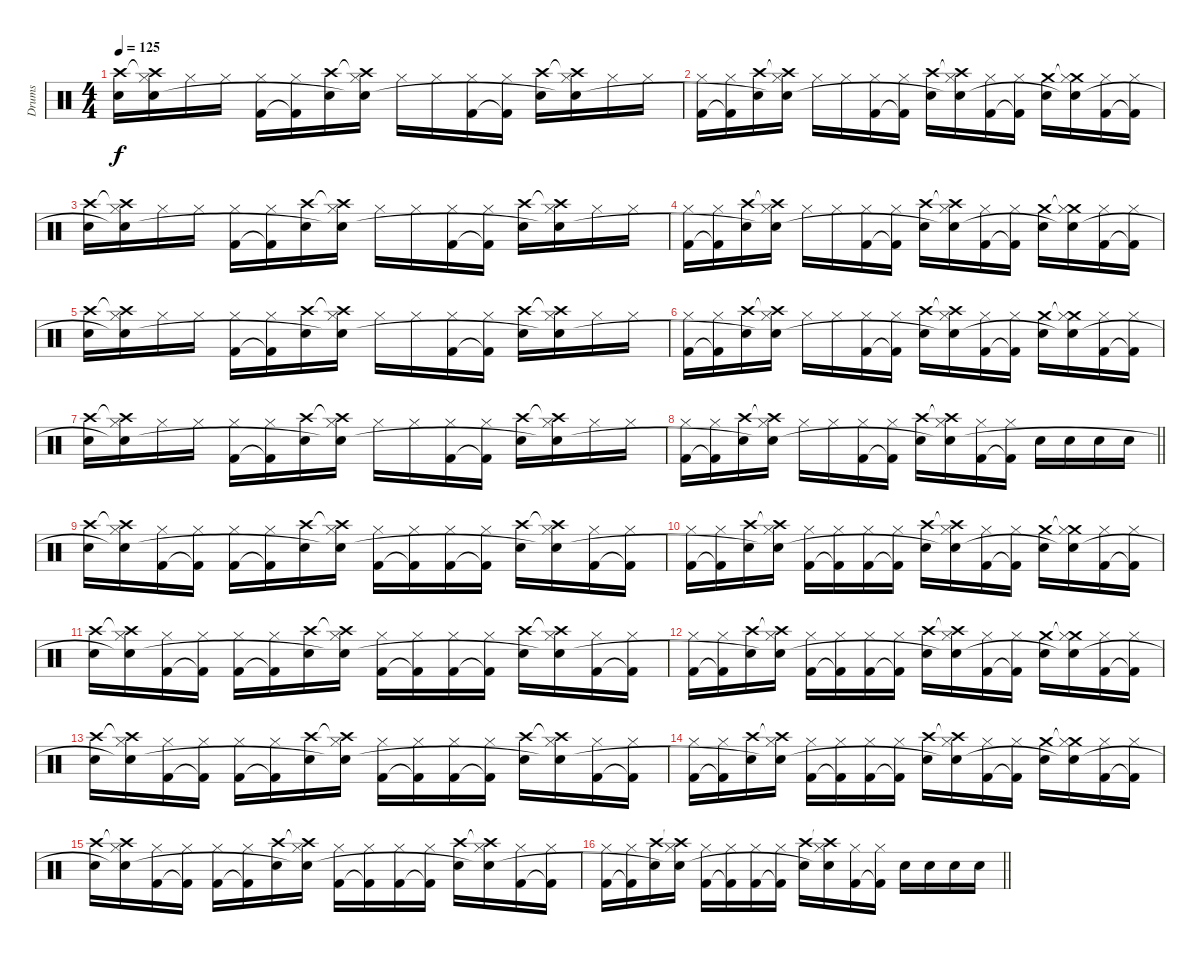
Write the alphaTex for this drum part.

\track ("Drums" "Drums") {instrument percussion}
\staff {score}
\articulation defaults
\ts (4 4)
\tempo 125
\clef neutral
\ks c
("Crash high (hit)" "Snare (hit) 2").16{dy f} ("Crash high (hit)"{t} "Hi-Hat (closed)" "Snare (hit) 2"{t}).16 "Hi-Hat (closed)".16 "Hi-Hat (closed)".16 ("Hi-Hat (closed)" "Kick (hit) 2").16 ("Hi-Hat (closed)" "Kick (hit) 2"{t}).16 ("Crash high (hit)" "Snare (hit) 2").16 ("Crash high (hit)"{t} "Hi-Hat (closed)" "Snare (hit) 2"{t}).16 "Hi-Hat (closed)".16 "Hi-Hat (closed)".16 ("Hi-Hat (closed)" "Kick (hit) 2").16 ("Hi-Hat (closed)" "Kick (hit) 2"{t}).16 ("Crash high (hit)" "Snare (hit) 2").16 ("Crash high (hit)"{t} "Hi-Hat (closed)" "Snare (hit) 2"{t}).16 "Hi-Hat (closed)".16 "Hi-Hat (closed)".16 |
("Hi-Hat (closed)" "Kick (hit) 2").16 ("Hi-Hat (closed)" "Kick (hit) 2"{t}).16 ("Crash high (hit)" "Snare (hit) 2").16 ("Crash high (hit)"{t} "Hi-Hat (closed)" "Snare (hit) 2"{t}).16 "Hi-Hat (closed)".16 "Hi-Hat (closed)".16 ("Hi-Hat (closed)" "Kick (hit) 2").16 ("Hi-Hat (closed)" "Kick (hit) 2"{t}).16 ("Crash high (hit)" "Snare (hit) 2").16 ("Crash high (hit)"{t} "Hi-Hat (closed)" "Snare (hit) 2"{t}).16 ("Hi-Hat (closed)" "Kick (hit) 2").16 ("Hi-Hat (closed)" "Kick (hit) 2"{t}).16 ("Crash medium (hit)" "Snare (hit) 2").16 ("Crash medium (hit)"{t} "Hi-Hat (closed)" "Snare (hit) 2"{t}).16 ("Hi-Hat (closed)" "Kick (hit) 2").16 ("Hi-Hat (closed)" "Kick (hit) 2"{t}).16 |
("Crash high (hit)" "Snare (hit) 2").16 ("Crash high (hit)"{t} "Hi-Hat (closed)" "Snare (hit) 2"{t}).16 "Hi-Hat (closed)".16 "Hi-Hat (closed)".16 ("Hi-Hat (closed)" "Kick (hit) 2").16 ("Hi-Hat (closed)" "Kick (hit) 2"{t}).16 ("Crash high (hit)" "Snare (hit) 2").16 ("Crash high (hit)"{t} "Hi-Hat (closed)" "Snare (hit) 2"{t}).16 "Hi-Hat (closed)".16 "Hi-Hat (closed)".16 ("Hi-Hat (closed)" "Kick (hit) 2").16 ("Hi-Hat (closed)" "Kick (hit) 2"{t}).16 ("Crash high (hit)" "Snare (hit) 2").16 ("Crash high (hit)"{t} "Hi-Hat (closed)" "Snare (hit) 2"{t}).16 "Hi-Hat (closed)".16 "Hi-Hat (closed)".16 |
("Hi-Hat (closed)" "Kick (hit) 2").16 ("Hi-Hat (closed)" "Kick (hit) 2"{t}).16 ("Crash high (hit)" "Snare (hit) 2").16 ("Crash high (hit)"{t} "Hi-Hat (closed)" "Snare (hit) 2"{t}).16 "Hi-Hat (closed)".16 "Hi-Hat (closed)".16 ("Hi-Hat (closed)" "Kick (hit) 2").16 ("Hi-Hat (closed)" "Kick (hit) 2"{t}).16 ("Crash high (hit)" "Snare (hit) 2").16 ("Crash high (hit)"{t} "Hi-Hat (closed)" "Snare (hit) 2"{t}).16 ("Hi-Hat (closed)" "Kick (hit) 2").16 ("Hi-Hat (closed)" "Kick (hit) 2"{t}).16 ("Crash medium (hit)" "Snare (hit) 2").16 ("Crash medium (hit)"{t} "Hi-Hat (closed)" "Snare (hit) 2"{t}).16 ("Hi-Hat (closed)" "Kick (hit) 2").16 ("Hi-Hat (closed)" "Kick (hit) 2"{t}).16 |
("Crash high (hit)" "Snare (hit) 2").16 ("Crash high (hit)"{t} "Hi-Hat (closed)" "Snare (hit) 2"{t}).16 "Hi-Hat (closed)".16 "Hi-Hat (closed)".16 ("Hi-Hat (closed)" "Kick (hit) 2").16 ("Hi-Hat (closed)" "Kick (hit) 2"{t}).16 ("Crash high (hit)" "Snare (hit) 2").16 ("Crash high (hit)"{t} "Hi-Hat (closed)" "Snare (hit) 2"{t}).16 "Hi-Hat (closed)".16 "Hi-Hat (closed)".16 ("Hi-Hat (closed)" "Kick (hit) 2").16 ("Hi-Hat (closed)" "Kick (hit) 2"{t}).16 ("Crash high (hit)" "Snare (hit) 2").16 ("Crash high (hit)"{t} "Hi-Hat (closed)" "Snare (hit) 2"{t}).16 "Hi-Hat (closed)".16 "Hi-Hat (closed)".16 |
("Hi-Hat (closed)" "Kick (hit) 2").16 ("Hi-Hat (closed)" "Kick (hit) 2"{t}).16 ("Crash high (hit)" "Snare (hit) 2").16 ("Crash high (hit)"{t} "Hi-Hat (closed)" "Snare (hit) 2"{t}).16 "Hi-Hat (closed)".16 "Hi-Hat (closed)".16 ("Hi-Hat (closed)" "Kick (hit) 2").16 ("Hi-Hat (closed)" "Kick (hit) 2"{t}).16 ("Crash high (hit)" "Snare (hit) 2").16 ("Crash high (hit)"{t} "Hi-Hat (closed)" "Snare (hit) 2"{t}).16 ("Hi-Hat (closed)" "Kick (hit) 2").16 ("Hi-Hat (closed)" "Kick (hit) 2"{t}).16 ("Crash medium (hit)" "Snare (hit) 2").16 ("Crash medium (hit)"{t} "Hi-Hat (closed)" "Snare (hit) 2"{t}).16 ("Hi-Hat (closed)" "Kick (hit) 2").16 ("Hi-Hat (closed)" "Kick (hit) 2"{t}).16 |
("Crash high (hit)" "Snare (hit) 2").16 ("Crash high (hit)"{t} "Hi-Hat (closed)" "Snare (hit) 2"{t}).16 "Hi-Hat (closed)".16 "Hi-Hat (closed)".16 ("Hi-Hat (closed)" "Kick (hit) 2").16 ("Hi-Hat (closed)" "Kick (hit) 2"{t}).16 ("Crash high (hit)" "Snare (hit) 2").16 ("Crash high (hit)"{t} "Hi-Hat (closed)" "Snare (hit) 2"{t}).16 "Hi-Hat (closed)".16 "Hi-Hat (closed)".16 ("Hi-Hat (closed)" "Kick (hit) 2").16 ("Hi-Hat (closed)" "Kick (hit) 2"{t}).16 ("Crash high (hit)" "Snare (hit) 2").16 ("Crash high (hit)"{t} "Hi-Hat (closed)" "Snare (hit) 2"{t}).16 "Hi-Hat (closed)".16 "Hi-Hat (closed)".16 |
\barLineRight lightlight
("Hi-Hat (closed)" "Kick (hit) 2").16 ("Hi-Hat (closed)" "Kick (hit) 2"{t}).16 ("Crash high (hit)" "Snare (hit) 2").16 ("Crash high (hit)"{t} "Hi-Hat (closed)" "Snare (hit) 2"{t}).16 "Hi-Hat (closed)".16 "Hi-Hat (closed)".16 ("Hi-Hat (closed)" "Kick (hit) 2").16 ("Hi-Hat (closed)" "Kick (hit) 2"{t}).16 ("Crash high (hit)" "Snare (hit) 2").16 ("Crash high (hit)"{t} "Hi-Hat (closed)" "Snare (hit) 2"{t}).16 ("Hi-Hat (closed)" "Kick (hit) 2").16 ("Hi-Hat (closed)" "Kick (hit) 2"{t}).16 "Snare (hit) 2".16 "Snare (hit) 2".16 "Snare (hit) 2".16 "Snare (hit) 2".16 |
("Crash high (hit)" "Snare (hit) 2").16 ("Crash high (hit)"{t} "Hi-Hat (closed)" "Snare (hit) 2"{t}).16 ("Hi-Hat (closed)" "Kick (hit) 2").16 ("Hi-Hat (closed)" "Kick (hit) 2"{t}).16 ("Hi-Hat (closed)" "Kick (hit) 2").16 ("Hi-Hat (closed)" "Kick (hit) 2"{t}).16 ("Crash high (hit)" "Snare (hit) 2").16 ("Crash high (hit)"{t} "Hi-Hat (closed)" "Snare (hit) 2"{t}).16 ("Hi-Hat (closed)" "Kick (hit) 2").16 ("Hi-Hat (closed)" "Kick (hit) 2"{t}).16 ("Hi-Hat (closed)" "Kick (hit) 2").16 ("Hi-Hat (closed)" "Kick (hit) 2"{t}).16 ("Crash high (hit)" "Snare (hit) 2").16 ("Crash high (hit)"{t} "Hi-Hat (closed)" "Snare (hit) 2"{t}).16 ("Hi-Hat (closed)" "Kick (hit) 2").16 ("Hi-Hat (closed)" "Kick (hit) 2"{t}).16 |
("Hi-Hat (closed)" "Kick (hit) 2").16 ("Hi-Hat (closed)" "Kick (hit) 2"{t}).16 ("Crash high (hit)" "Snare (hit) 2").16 ("Crash high (hit)"{t} "Hi-Hat (closed)" "Snare (hit) 2"{t}).16 ("Hi-Hat (closed)" "Kick (hit) 2").16 ("Hi-Hat (closed)" "Kick (hit) 2"{t}).16 ("Hi-Hat (closed)" "Kick (hit) 2").16 ("Hi-Hat (closed)" "Kick (hit) 2"{t}).16 ("Crash high (hit)" "Snare (hit) 2").16 ("Crash high (hit)"{t} "Hi-Hat (closed)" "Snare (hit) 2"{t}).16 ("Hi-Hat (closed)" "Kick (hit) 2").16 ("Hi-Hat (closed)" "Kick (hit) 2"{t}).16 ("Crash medium (hit)" "Snare (hit) 2").16 ("Crash medium (hit)"{t} "Hi-Hat (closed)" "Snare (hit) 2"{t}).16 ("Hi-Hat (closed)" "Kick (hit) 2").16 ("Hi-Hat (closed)" "Kick (hit) 2"{t}).16 |
("Crash high (hit)" "Snare (hit) 2").16 ("Crash high (hit)"{t} "Hi-Hat (closed)" "Snare (hit) 2"{t}).16 ("Hi-Hat (closed)" "Kick (hit) 2").16 ("Hi-Hat (closed)" "Kick (hit) 2"{t}).16 ("Hi-Hat (closed)" "Kick (hit) 2").16 ("Hi-Hat (closed)" "Kick (hit) 2"{t}).16 ("Crash high (hit)" "Snare (hit) 2").16 ("Crash high (hit)"{t} "Hi-Hat (closed)" "Snare (hit) 2"{t}).16 ("Hi-Hat (closed)" "Kick (hit) 2").16 ("Hi-Hat (closed)" "Kick (hit) 2"{t}).16 ("Hi-Hat (closed)" "Kick (hit) 2").16 ("Hi-Hat (closed)" "Kick (hit) 2"{t}).16 ("Crash high (hit)" "Snare (hit) 2").16 ("Crash high (hit)"{t} "Hi-Hat (closed)" "Snare (hit) 2"{t}).16 ("Hi-Hat (closed)" "Kick (hit) 2").16 ("Hi-Hat (closed)" "Kick (hit) 2"{t}).16 |
("Hi-Hat (closed)" "Kick (hit) 2").16 ("Hi-Hat (closed)" "Kick (hit) 2"{t}).16 ("Crash high (hit)" "Snare (hit) 2").16 ("Crash high (hit)"{t} "Hi-Hat (closed)" "Snare (hit) 2"{t}).16 ("Hi-Hat (closed)" "Kick (hit) 2").16 ("Hi-Hat (closed)" "Kick (hit) 2"{t}).16 ("Hi-Hat (closed)" "Kick (hit) 2").16 ("Hi-Hat (closed)" "Kick (hit) 2"{t}).16 ("Crash high (hit)" "Snare (hit) 2").16 ("Crash high (hit)"{t} "Hi-Hat (closed)" "Snare (hit) 2"{t}).16 ("Hi-Hat (closed)" "Kick (hit) 2").16 ("Hi-Hat (closed)" "Kick (hit) 2"{t}).16 ("Crash medium (hit)" "Snare (hit) 2").16 ("Crash medium (hit)"{t} "Hi-Hat (closed)" "Snare (hit) 2"{t}).16 ("Hi-Hat (closed)" "Kick (hit) 2").16 ("Hi-Hat (closed)" "Kick (hit) 2"{t}).16 |
("Crash high (hit)" "Snare (hit) 2").16 ("Crash high (hit)"{t} "Hi-Hat (closed)" "Snare (hit) 2"{t}).16 ("Hi-Hat (closed)" "Kick (hit) 2").16 ("Hi-Hat (closed)" "Kick (hit) 2"{t}).16 ("Hi-Hat (closed)" "Kick (hit) 2").16 ("Hi-Hat (closed)" "Kick (hit) 2"{t}).16 ("Crash high (hit)" "Snare (hit) 2").16 ("Crash high (hit)"{t} "Hi-Hat (closed)" "Snare (hit) 2"{t}).16 ("Hi-Hat (closed)" "Kick (hit) 2").16 ("Hi-Hat (closed)" "Kick (hit) 2"{t}).16 ("Hi-Hat (closed)" "Kick (hit) 2").16 ("Hi-Hat (closed)" "Kick (hit) 2"{t}).16 ("Crash high (hit)" "Snare (hit) 2").16 ("Crash high (hit)"{t} "Hi-Hat (closed)" "Snare (hit) 2"{t}).16 ("Hi-Hat (closed)" "Kick (hit) 2").16 ("Hi-Hat (closed)" "Kick (hit) 2"{t}).16 |
("Hi-Hat (closed)" "Kick (hit) 2").16 ("Hi-Hat (closed)" "Kick (hit) 2"{t}).16 ("Crash high (hit)" "Snare (hit) 2").16 ("Crash high (hit)"{t} "Hi-Hat (closed)" "Snare (hit) 2"{t}).16 ("Hi-Hat (closed)" "Kick (hit) 2").16 ("Hi-Hat (closed)" "Kick (hit) 2"{t}).16 ("Hi-Hat (closed)" "Kick (hit) 2").16 ("Hi-Hat (closed)" "Kick (hit) 2"{t}).16 ("Crash high (hit)" "Snare (hit) 2").16 ("Crash high (hit)"{t} "Hi-Hat (closed)" "Snare (hit) 2"{t}).16 ("Hi-Hat (closed)" "Kick (hit) 2").16 ("Hi-Hat (closed)" "Kick (hit) 2"{t}).16 ("Crash medium (hit)" "Snare (hit) 2").16 ("Crash medium (hit)"{t} "Hi-Hat (closed)" "Snare (hit) 2"{t}).16 ("Hi-Hat (closed)" "Kick (hit) 2").16 ("Hi-Hat (closed)" "Kick (hit) 2"{t}).16 |
("Crash high (hit)" "Snare (hit) 2").16 ("Crash high (hit)"{t} "Hi-Hat (closed)" "Snare (hit) 2"{t}).16 ("Hi-Hat (closed)" "Kick (hit) 2").16 ("Hi-Hat (closed)" "Kick (hit) 2"{t}).16 ("Hi-Hat (closed)" "Kick (hit) 2").16 ("Hi-Hat (closed)" "Kick (hit) 2"{t}).16 ("Crash high (hit)" "Snare (hit) 2").16 ("Crash high (hit)"{t} "Hi-Hat (closed)" "Snare (hit) 2"{t}).16 ("Hi-Hat (closed)" "Kick (hit) 2").16 ("Hi-Hat (closed)" "Kick (hit) 2"{t}).16 ("Hi-Hat (closed)" "Kick (hit) 2").16 ("Hi-Hat (closed)" "Kick (hit) 2"{t}).16 ("Crash high (hit)" "Snare (hit) 2").16 ("Crash high (hit)"{t} "Hi-Hat (closed)" "Snare (hit) 2"{t}).16 ("Hi-Hat (closed)" "Kick (hit) 2").16 ("Hi-Hat (closed)" "Kick (hit) 2"{t}).16 |
\barLineRight lightlight
("Hi-Hat (closed)" "Kick (hit) 2").16 ("Hi-Hat (closed)" "Kick (hit) 2"{t}).16 ("Crash high (hit)" "Snare (hit) 2").16 ("Crash high (hit)"{t} "Hi-Hat (closed)" "Snare (hit) 2"{t}).16 ("Hi-Hat (closed)" "Kick (hit) 2").16 ("Hi-Hat (closed)" "Kick (hit) 2"{t}).16 ("Hi-Hat (closed)" "Kick (hit) 2").16 ("Hi-Hat (closed)" "Kick (hit) 2"{t}).16 ("Crash high (hit)" "Snare (hit) 2").16 ("Crash high (hit)"{t} "Hi-Hat (closed)" "Snare (hit) 2"{t}).16 ("Hi-Hat (closed)" "Kick (hit) 2").16 ("Hi-Hat (closed)" "Kick (hit) 2"{t}).16 "Snare (hit) 2".16 "Snare (hit) 2".16 "Snare (hit) 2".16 "Snare (hit) 2".16
